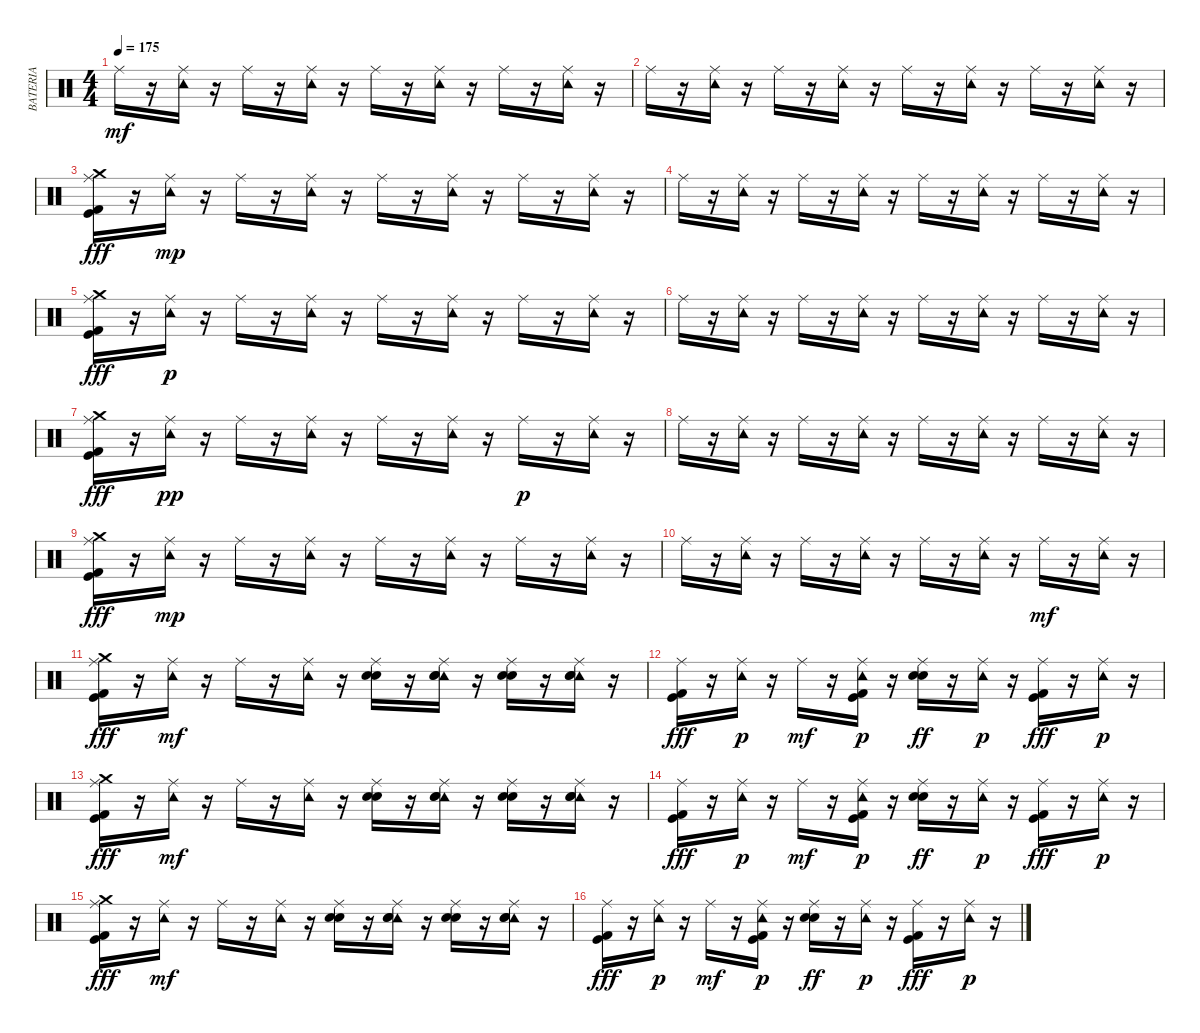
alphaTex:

\track ("BATERIA" "BATERIA") {instrument percussion}
\staff {score}
\articulation defaults
\ts (4 4)
\tempo 175
\clef neutral
\ks c "Ride (middle)".16{dy mf}
r.16 ("Tambourine (hit)" "Ride (middle)").16 r.16 "Ride (middle)".16 r.16 ("Tambourine (hit)" "Ride (middle)").16 r.16 "Ride (middle)".16 r.16 ("Tambourine (hit)" "Ride (middle)").16 r.16 "Ride (middle)".16 r.16 ("Tambourine (hit)" "Ride (middle)").16 r.16 |
"Ride (middle)".16 r.16 ("Tambourine (hit)" "Ride (middle)").16 r.16 "Ride (middle)".16 r.16 ("Tambourine (hit)" "Ride (middle)").16 r.16 "Ride (middle)".16 r.16 ("Tambourine (hit)" "Ride (middle)").16 r.16 "Ride (middle)".16 r.16 ("Tambourine (hit)" "Ride (middle)").16 r.16 |
("Ride (middle)" "Crash medium (hit)" "Kick (hit)" "Kick (hit) 2").16{dy fff} r.16 ("Tambourine (hit)" "Ride (middle)").16{dy mp} r.16 "Ride (middle)".16 r.16 ("Tambourine (hit)" "Ride (middle)").16 r.16 "Ride (middle)".16 r.16 ("Tambourine (hit)" "Ride (middle)").16 r.16 "Ride (middle)".16 r.16 ("Tambourine (hit)" "Ride (middle)").16 r.16 |
"Ride (middle)".16 r.16 ("Tambourine (hit)" "Ride (middle)").16 r.16 "Ride (middle)".16 r.16 ("Tambourine (hit)" "Ride (middle)").16 r.16 "Ride (middle)".16 r.16 ("Tambourine (hit)" "Ride (middle)").16 r.16 "Ride (middle)".16 r.16 ("Tambourine (hit)" "Ride (middle)").16 r.16 |
("Ride (middle)" "Crash medium (hit)" "Kick (hit)" "Kick (hit) 2").16{dy fff} r.16 ("Tambourine (hit)" "Ride (middle)").16{dy p} r.16 "Ride (middle)".16 r.16 ("Tambourine (hit)" "Ride (middle)").16 r.16 "Ride (middle)".16 r.16 ("Tambourine (hit)" "Ride (middle)").16 r.16 "Ride (middle)".16 r.16 ("Tambourine (hit)" "Ride (middle)").16 r.16 |
"Ride (middle)".16 r.16 ("Tambourine (hit)" "Ride (middle)").16 r.16 "Ride (middle)".16 r.16 ("Tambourine (hit)" "Ride (middle)").16 r.16 "Ride (middle)".16 r.16 ("Tambourine (hit)" "Ride (middle)").16 r.16 "Ride (middle)".16 r.16 ("Tambourine (hit)" "Ride (middle)").16 r.16 |
("Ride (middle)" "Crash medium (hit)" "Kick (hit)" "Kick (hit) 2").16{dy fff} r.16 ("Tambourine (hit)" "Ride (middle)").16{dy pp} r.16 "Ride (middle)".16 r.16 ("Tambourine (hit)" "Ride (middle)").16 r.16 "Ride (middle)".16 r.16 ("Tambourine (hit)" "Ride (middle)").16 r.16 "Ride (middle)".16{dy p} r.16 ("Tambourine (hit)" "Ride (middle)").16 r.16 |
"Ride (middle)".16 r.16 ("Tambourine (hit)" "Ride (middle)").16 r.16 "Ride (middle)".16 r.16 ("Tambourine (hit)" "Ride (middle)").16 r.16 "Ride (middle)".16 r.16 ("Tambourine (hit)" "Ride (middle)").16 r.16 "Ride (middle)".16 r.16 ("Tambourine (hit)" "Ride (middle)").16 r.16 |
("Ride (middle)" "Crash medium (hit)" "Kick (hit)" "Kick (hit) 2").16{dy fff} r.16 ("Tambourine (hit)" "Ride (middle)").16{dy mp} r.16 "Ride (middle)".16 r.16 ("Tambourine (hit)" "Ride (middle)").16 r.16 "Ride (middle)".16 r.16 ("Tambourine (hit)" "Ride (middle)").16 r.16 "Ride (middle)".16 r.16 ("Tambourine (hit)" "Ride (middle)").16 r.16 |
"Ride (middle)".16 r.16 ("Tambourine (hit)" "Ride (middle)").16 r.16 "Ride (middle)".16 r.16 ("Tambourine (hit)" "Ride (middle)").16 r.16 "Ride (middle)".16 r.16 ("Tambourine (hit)" "Ride (middle)").16 r.16 "Ride (middle)".16{dy mf} r.16 ("Tambourine (hit)" "Ride (middle)").16 r.16 |
("Ride (middle)" "Crash medium (hit)" "Kick (hit)" "Kick (hit) 2").16{dy fff} r.16 ("Tambourine (hit)" "Ride (middle)").16{dy mf} r.16 "Ride (middle)".16 r.16 ("Tambourine (hit)" "Ride (middle)").16 r.16 ("Electric Snare (hit)" "Snare (hit) 2" "Ride (middle)").16 r.16 ("Tambourine (hit)" "Electric Snare (hit)" "Snare (hit) 2" "Ride (middle)").16 r.16 ("Electric Snare (hit)" "Snare (hit) 2" "Ride (middle)").16 r.16 ("Tambourine (hit)" "Electric Snare (hit)" "Snare (hit) 2" "Ride (middle)").16 r.16 |
("Ride (middle)" "Kick (hit)" "Kick (hit) 2").16{dy fff} r.16 ("Ride (middle)" "Tambourine (hit)").16{dy p} r.16 "Ride (middle)".16{dy mf} r.16 ("Ride (middle)" "Kick (hit)" "Kick (hit) 2" "Tambourine (hit)").16{dy p} r.16 ("Ride (middle)" "Snare (hit) 2" "Electric Snare (hit)").16{dy ff} r.16 ("Ride (middle)" "Tambourine (hit)").16{dy p} r.16 ("Ride (middle)" "Kick (hit)" "Kick (hit) 2").16{dy fff} r.16 ("Ride (middle)" "Tambourine (hit)").16{dy p} r.16 |
("Ride (middle)" "Crash medium (hit)" "Kick (hit)" "Kick (hit) 2").16{dy fff} r.16 ("Tambourine (hit)" "Ride (middle)").16{dy mf} r.16 "Ride (middle)".16 r.16 ("Tambourine (hit)" "Ride (middle)").16 r.16 ("Electric Snare (hit)" "Snare (hit) 2" "Ride (middle)").16 r.16 ("Tambourine (hit)" "Electric Snare (hit)" "Snare (hit) 2" "Ride (middle)").16 r.16 ("Electric Snare (hit)" "Snare (hit) 2" "Ride (middle)").16 r.16 ("Tambourine (hit)" "Electric Snare (hit)" "Snare (hit) 2" "Ride (middle)").16 r.16 |
("Ride (middle)" "Kick (hit)" "Kick (hit) 2").16{dy fff} r.16 ("Ride (middle)" "Tambourine (hit)").16{dy p} r.16 "Ride (middle)".16{dy mf} r.16 ("Ride (middle)" "Kick (hit)" "Kick (hit) 2" "Tambourine (hit)").16{dy p} r.16 ("Ride (middle)" "Snare (hit) 2" "Electric Snare (hit)").16{dy ff} r.16 ("Ride (middle)" "Tambourine (hit)").16{dy p} r.16 ("Ride (middle)" "Kick (hit)" "Kick (hit) 2").16{dy fff} r.16 ("Ride (middle)" "Tambourine (hit)").16{dy p} r.16 |
("Ride (middle)" "Crash medium (hit)" "Kick (hit)" "Kick (hit) 2").16{dy fff} r.16 ("Tambourine (hit)" "Ride (middle)").16{dy mf} r.16 "Ride (middle)".16 r.16 ("Tambourine (hit)" "Ride (middle)").16 r.16 ("Electric Snare (hit)" "Snare (hit) 2" "Ride (middle)").16 r.16 ("Tambourine (hit)" "Electric Snare (hit)" "Snare (hit) 2" "Ride (middle)").16 r.16 ("Electric Snare (hit)" "Snare (hit) 2" "Ride (middle)").16 r.16 ("Tambourine (hit)" "Electric Snare (hit)" "Snare (hit) 2" "Ride (middle)").16 r.16 |
("Ride (middle)" "Kick (hit)" "Kick (hit) 2").16{dy fff} r.16 ("Ride (middle)" "Tambourine (hit)").16{dy p} r.16 "Ride (middle)".16{dy mf} r.16 ("Ride (middle)" "Kick (hit)" "Kick (hit) 2" "Tambourine (hit)").16{dy p} r.16 ("Ride (middle)" "Snare (hit) 2" "Electric Snare (hit)").16{dy ff} r.16 ("Ride (middle)" "Tambourine (hit)").16{dy p} r.16 ("Ride (middle)" "Kick (hit)" "Kick (hit) 2").16{dy fff} r.16 ("Ride (middle)" "Tambourine (hit)").16{dy p} r.16
